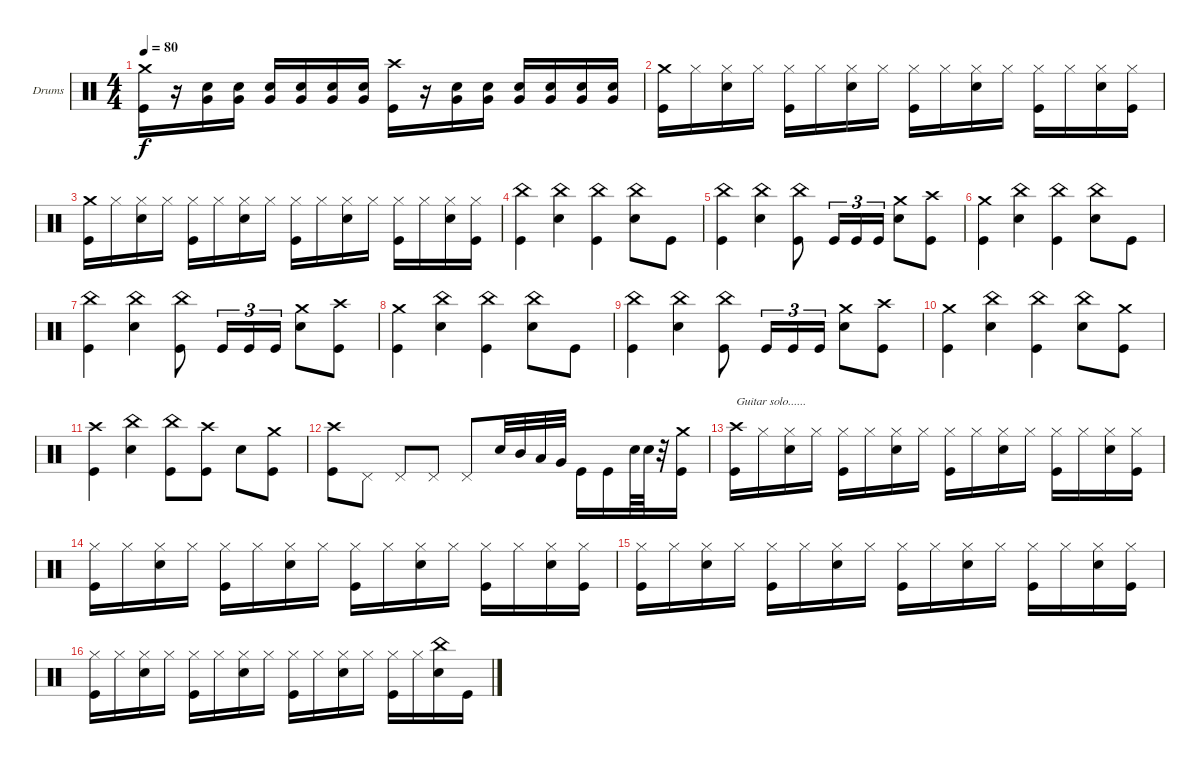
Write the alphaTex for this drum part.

\defaultSystemsLayout 4
\bracketExtendMode groupsimilarinstruments
\firstSystemTrackNameOrientation horizontal
\otherSystemsTrackNameOrientation horizontal
\track ("Francesco Jovino" "Drums") {instrument percussion}
\staff {score}
\articulation defaults
\ts (4 4)
\tempo 80
\clef neutral
\ks c
("Kick (hit)" "Crash medium (hit)").16{dy f} r.16 ("Snare (hit) 2" "Very Low Tom (hit)").16 ("Snare (hit) 2" "Very Low Tom (hit)").16 ("Snare (hit) 2" "Very Low Tom (hit)").16 ("Snare (hit) 2" "Very Low Tom (hit)").16 ("Snare (hit) 2" "Very Low Tom (hit)").16 ("Snare (hit) 2" "Very Low Tom (hit)").16 ("Kick (hit)" "Crash high (hit)").16 r.16 ("Very Low Tom (hit)" "Snare (hit) 2").16 ("Very Low Tom (hit)" "Snare (hit) 2").16 ("Very Low Tom (hit)" "Snare (hit) 2").16 ("Very Low Tom (hit)" "Snare (hit) 2").16 ("Very Low Tom (hit)" "Snare (hit) 2").16 ("Very Low Tom (hit)" "Snare (hit) 2").16 |
("Kick (hit)" "Crash medium (hit)").16 "Hi-Hat (closed)".16 ("Snare (hit) 2" "Hi-Hat (closed)").16 "Hi-Hat (closed)".16 ("Kick (hit)" "Hi-Hat (closed)").16 "Hi-Hat (closed)".16 ("Snare (hit) 2" "Hi-Hat (closed)").16 "Hi-Hat (closed)".16 ("Kick (hit)" "Hi-Hat (closed)").16 "Hi-Hat (closed)".16 ("Snare (hit) 2" "Hi-Hat (closed)").16 "Hi-Hat (closed)".16 ("Kick (hit)" "Hi-Hat (closed)").16 "Hi-Hat (closed)".16 ("Snare (hit) 2" "Hi-Hat (closed)").16 ("Kick (hit)" "Hi-Hat (closed)").16 |
("Kick (hit)" "Crash medium (hit)").16 "Hi-Hat (closed)".16 ("Snare (hit) 2" "Hi-Hat (closed)").16 "Hi-Hat (closed)".16 ("Kick (hit)" "Hi-Hat (closed)").16 "Hi-Hat (closed)".16 ("Snare (hit) 2" "Hi-Hat (closed)").16 "Hi-Hat (closed)".16 ("Kick (hit)" "Hi-Hat (closed)").16 "Hi-Hat (closed)".16 ("Snare (hit) 2" "Hi-Hat (closed)").16 "Hi-Hat (closed)".16 ("Kick (hit)" "Hi-Hat (closed)").16 "Hi-Hat (closed)".16 ("Snare (hit) 2" "Hi-Hat (closed)").16 ("Kick (hit)" "Hi-Hat (closed)").16 |
("Kick (hit)" "China (hit)").4 ("Snare (hit) 2" "China (hit)").4 ("Kick (hit)" "China (hit)").4 ("China (hit)" "Snare (hit) 2").8 "Kick (hit)".8 |
("Kick (hit)" "China (hit)").4 ("Snare (hit) 2" "China (hit)").4 ("Kick (hit)" "China (hit)").8 "Kick (hit)".16{tu (3 2)} "Kick (hit)".16{tu (3 2)} "Kick (hit)".16{tu (3 2)} ("Snare (hit) 2" "Crash medium (hit)").8 ("Kick (hit)" "Crash high (hit)").8 |
("Kick (hit)" "Crash medium (hit)").4 ("Snare (hit) 2" "China (hit)").4 ("Kick (hit)" "China (hit)").4 ("China (hit)" "Snare (hit) 2").8 "Kick (hit)".8 |
("Kick (hit)" "China (hit)").4 ("Snare (hit) 2" "China (hit)").4 ("Kick (hit)" "China (hit)").8 "Kick (hit)".16{tu (3 2)} "Kick (hit)".16{tu (3 2)} "Kick (hit)".16{tu (3 2)} ("Snare (hit) 2" "Crash medium (hit)").8 ("Kick (hit)" "Crash high (hit)").8 |
("Kick (hit)" "Crash medium (hit)").4 ("Snare (hit) 2" "China (hit)").4 ("Kick (hit)" "China (hit)").4 ("China (hit)" "Snare (hit) 2").8 "Kick (hit)".8 |
("Kick (hit)" "China (hit)").4 ("Snare (hit) 2" "China (hit)").4 ("Kick (hit)" "China (hit)").8 "Kick (hit)".16{tu (3 2)} "Kick (hit)".16{tu (3 2)} "Kick (hit)".16{tu (3 2)} ("Snare (hit) 2" "Crash medium (hit)").8 ("Kick (hit)" "Crash high (hit)").8 |
("Kick (hit)" "Crash medium (hit)").4 ("Snare (hit) 2" "China (hit)").4 ("Kick (hit)" "China (hit)").4 ("China (hit)" "Snare (hit) 2").8 ("Kick (hit)" "Crash medium (hit)").8 |
("Kick (hit)" "Crash high (hit)").4 ("Snare (hit) 2" "China (hit)").4 ("Kick (hit)" "China (hit)").8 ("Kick (hit)" "Crash high (hit)").8 "Snare (hit) 2".8 ("Kick (hit)" "Crash medium (hit)").8 |
("Kick (hit)" "Crash high (hit)").8 "Pedal Hi-Hat (hit)".8 "Pedal Hi-Hat (hit)".8 "Pedal Hi-Hat (hit)".8 "Pedal Hi-Hat (hit)".8 "Snare (hit) 2".32 "Mid Tom (hit)".32 "Low Tom (hit)".32 "Very Low Tom (hit)".32 "Kick (hit)".16 "Kick (hit)".16 "Snare (hit) 2".64 "Snare (hit) 2".64 r.32 ("Kick (hit)" "Crash medium (hit)").16 |
("Kick (hit)" "Crash high (hit)").16{txt "Guitar solo......"} "Hi-Hat (closed)".16 ("Snare (hit) 2" "Hi-Hat (closed)").16 "Hi-Hat (closed)".16 ("Kick (hit)" "Hi-Hat (closed)").16 "Hi-Hat (closed)".16 ("Snare (hit) 2" "Hi-Hat (closed)").16 "Hi-Hat (closed)".16 ("Kick (hit)" "Hi-Hat (closed)").16 "Hi-Hat (closed)".16 ("Snare (hit) 2" "Hi-Hat (closed)").16 "Hi-Hat (closed)".16 ("Kick (hit)" "Hi-Hat (closed)").16 "Hi-Hat (closed)".16 ("Snare (hit) 2" "Hi-Hat (closed)").16 ("Kick (hit)" "Hi-Hat (closed)").16 |
("Kick (hit)" "Hi-Hat (closed)").16 "Hi-Hat (closed)".16 ("Snare (hit) 2" "Hi-Hat (closed)").16 "Hi-Hat (closed)".16 ("Kick (hit)" "Hi-Hat (closed)").16 "Hi-Hat (closed)".16 ("Snare (hit) 2" "Hi-Hat (closed)").16 "Hi-Hat (closed)".16 ("Kick (hit)" "Hi-Hat (closed)").16 "Hi-Hat (closed)".16 ("Snare (hit) 2" "Hi-Hat (closed)").16 "Hi-Hat (closed)".16 ("Kick (hit)" "Hi-Hat (closed)").16 "Hi-Hat (closed)".16 ("Snare (hit) 2" "Hi-Hat (closed)").16 ("Kick (hit)" "Hi-Hat (closed)").16 |
("Kick (hit)" "Hi-Hat (closed)").16 "Hi-Hat (closed)".16 ("Snare (hit) 2" "Hi-Hat (closed)").16 "Hi-Hat (closed)".16 ("Kick (hit)" "Hi-Hat (closed)").16 "Hi-Hat (closed)".16 ("Snare (hit) 2" "Hi-Hat (closed)").16 "Hi-Hat (closed)".16 ("Kick (hit)" "Hi-Hat (closed)").16 "Hi-Hat (closed)".16 ("Snare (hit) 2" "Hi-Hat (closed)").16 "Hi-Hat (closed)".16 ("Kick (hit)" "Hi-Hat (closed)").16 "Hi-Hat (closed)".16 ("Snare (hit) 2" "Hi-Hat (closed)").16 ("Kick (hit)" "Hi-Hat (closed)").16 |
("Kick (hit)" "Hi-Hat (closed)").16 "Hi-Hat (closed)".16 ("Snare (hit) 2" "Hi-Hat (closed)").16 "Hi-Hat (closed)".16 ("Kick (hit)" "Hi-Hat (closed)").16 "Hi-Hat (closed)".16 ("Snare (hit) 2" "Hi-Hat (closed)").16 "Hi-Hat (closed)".16 ("Kick (hit)" "Hi-Hat (closed)").16 "Hi-Hat (closed)".16 ("Snare (hit) 2" "Hi-Hat (closed)").16 "Hi-Hat (closed)".16 ("Kick (hit)" "Hi-Hat (closed)").16 "Hi-Hat (closed)".16 ("Snare (hit) 2" "China (hit)").16 "Kick (hit)".16
